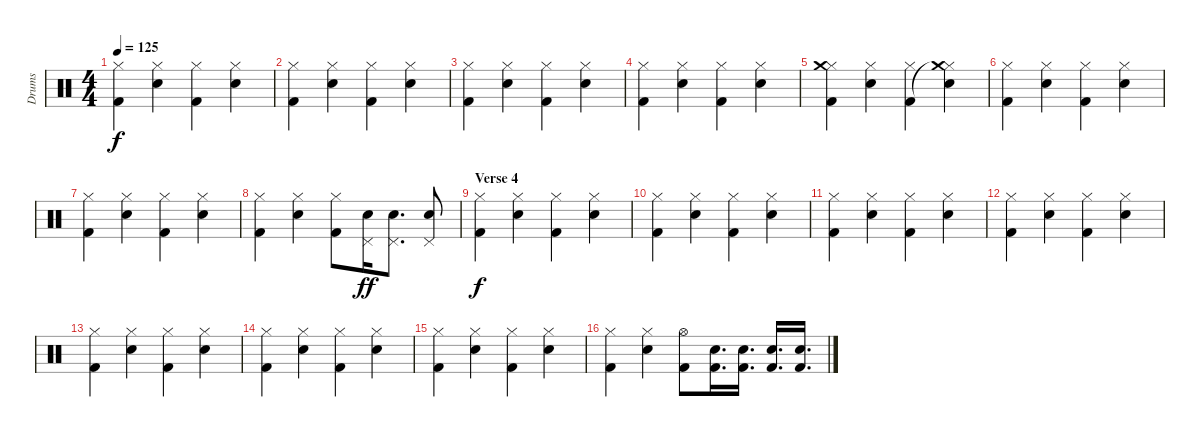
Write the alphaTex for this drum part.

\track ("Drums" "Drums") {instrument percussion}
\staff {score}
\articulation defaults
\ts (4 4)
\tempo 125
\clef neutral
\ks c
("Hi-Hat (closed)" "Kick (hit) 2").4{dy f} ("Hi-Hat (closed)" "Electric Snare (hit)").4 ("Hi-Hat (closed)" "Kick (hit) 2").4 ("Hi-Hat (closed)" "Electric Snare (hit)").4 |
("Hi-Hat (closed)" "Kick (hit) 2").4 ("Hi-Hat (closed)" "Electric Snare (hit)").4 ("Hi-Hat (closed)" "Kick (hit) 2").4 ("Hi-Hat (closed)" "Electric Snare (hit)").4 |
("Hi-Hat (closed)" "Kick (hit) 2").4 ("Hi-Hat (closed)" "Electric Snare (hit)").4 ("Hi-Hat (closed)" "Kick (hit) 2").4 ("Hi-Hat (closed)" "Electric Snare (hit)").4 |
("Hi-Hat (closed)" "Kick (hit) 2").4 ("Hi-Hat (closed)" "Electric Snare (hit)").4 ("Hi-Hat (closed)" "Kick (hit) 2").4 ("Hi-Hat (closed)" "Electric Snare (hit)").4 |
("Hi-Hat (closed)" "Crash medium (hit)" "Kick (hit) 2").4 ("Hi-Hat (closed)" "Electric Snare (hit)").4 ("Hi-Hat (closed)" "Kick (hit) 2").4 ("Hi-Hat (closed)" "Crash medium (hit)"{t} "Electric Snare (hit)").4 |
("Hi-Hat (closed)" "Kick (hit) 2").4 ("Hi-Hat (closed)" "Electric Snare (hit)").4 ("Hi-Hat (closed)" "Kick (hit) 2").4 ("Hi-Hat (closed)" "Electric Snare (hit)").4 |
("Hi-Hat (closed)" "Kick (hit) 2").4 ("Hi-Hat (closed)" "Electric Snare (hit)").4 ("Hi-Hat (closed)" "Kick (hit) 2").4 ("Hi-Hat (closed)" "Electric Snare (hit)").4 |
("Hi-Hat (closed)" "Kick (hit) 2").4 ("Hi-Hat (closed)" "Electric Snare (hit)").4 ("Hi-Hat (closed)" "Kick (hit) 2").8 ("Pedal Hi-Hat (hit)" "Electric Snare (hit)").16{dy ff} ("Pedal Hi-Hat (hit)" "Electric Snare (hit)").8{d} ("Pedal Hi-Hat (hit)" "Electric Snare (hit)").8 |
\section ("" "Verse 4")
("Hi-Hat (closed)" "Kick (hit) 2").4{dy f} ("Hi-Hat (closed)" "Electric Snare (hit)").4 ("Hi-Hat (closed)" "Kick (hit) 2").4 ("Hi-Hat (closed)" "Electric Snare (hit)").4 |
("Hi-Hat (closed)" "Kick (hit) 2").4 ("Hi-Hat (closed)" "Electric Snare (hit)").4 ("Hi-Hat (closed)" "Kick (hit) 2").4 ("Hi-Hat (closed)" "Electric Snare (hit)").4 |
("Hi-Hat (closed)" "Kick (hit) 2").4 ("Hi-Hat (closed)" "Electric Snare (hit)").4 ("Hi-Hat (closed)" "Kick (hit) 2").4 ("Hi-Hat (closed)" "Electric Snare (hit)").4 |
("Hi-Hat (closed)" "Kick (hit) 2").4 ("Hi-Hat (closed)" "Electric Snare (hit)").4 ("Hi-Hat (closed)" "Kick (hit) 2").4 ("Hi-Hat (closed)" "Electric Snare (hit)").4 |
("Hi-Hat (closed)" "Kick (hit) 2").4 ("Hi-Hat (closed)" "Electric Snare (hit)").4 ("Hi-Hat (closed)" "Kick (hit) 2").4 ("Hi-Hat (closed)" "Electric Snare (hit)").4 |
("Hi-Hat (closed)" "Kick (hit) 2").4 ("Hi-Hat (closed)" "Electric Snare (hit)").4 ("Hi-Hat (closed)" "Kick (hit) 2").4 ("Hi-Hat (closed)" "Electric Snare (hit)").4 |
("Hi-Hat (closed)" "Kick (hit) 2").4 ("Hi-Hat (closed)" "Electric Snare (hit)").4 ("Hi-Hat (closed)" "Kick (hit) 2").4 ("Hi-Hat (closed)" "Electric Snare (hit)").4 |
("Hi-Hat (closed)" "Kick (hit) 2").4 ("Hi-Hat (closed)" "Electric Snare (hit)").4 ("Hi-Hat (open)" "Kick (hit) 2").8 ("Electric Snare (hit)" "Kick (hit) 2").16{d} ("Electric Snare (hit)" "Kick (hit) 2").16{d} ("Electric Snare (hit)" "Kick (hit) 2").16{d} ("Electric Snare (hit)" "Kick (hit) 2").16{d}
